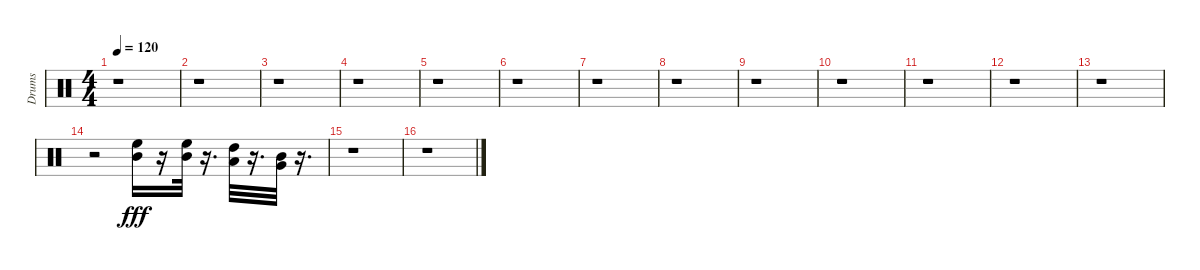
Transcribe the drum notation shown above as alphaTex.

\track ("Drums" "Drums") {instrument percussion}
\staff {score}
\articulation defaults
\ts (4 4)
\tempo 120
\clef neutral
\ks c
r.1{dy fff} |
r.1 |
r.1 |
r.1 |
r.1 |
r.1 |
r.1 |
r.1 |
r.1 |
r.1 |
r.1 |
r.1 |
r.1 |
r.2 ("Mid Tom (hit)" "High Floor Tom (hit)").16 r.16 ("Mid Tom (hit)" "High Floor Tom (hit)").32 r.16{d} ("Low Tom (hit)" "High Tom (hit)").32 r.16{d} ("Very Low Tom (hit)" "Mid Tom (hit)").32 r.16{d} |
r.1 |
r.1
